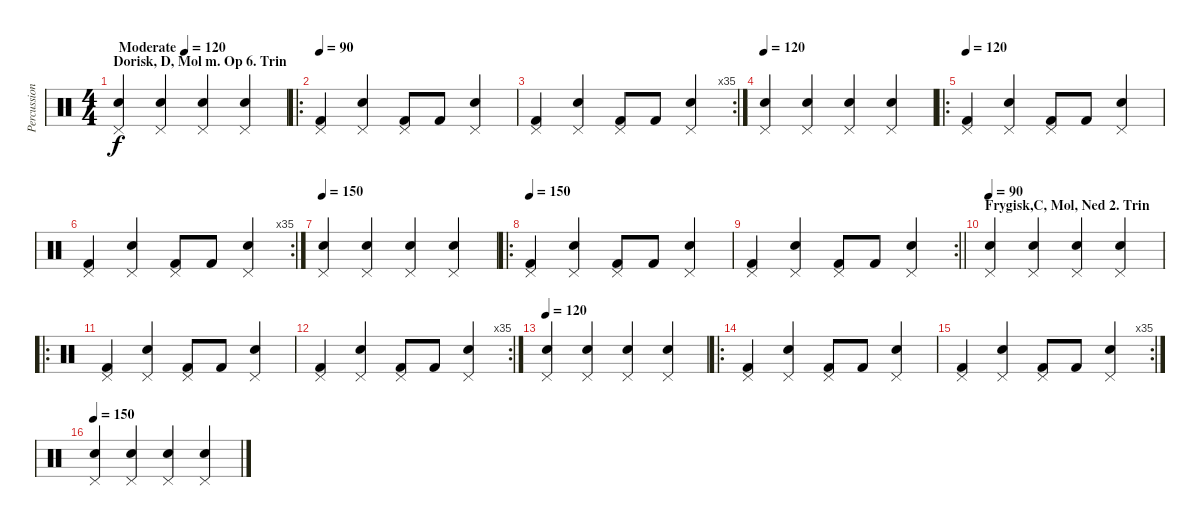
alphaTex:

\track ("Percussion" "Percussion") {instrument percussion}
\staff {score}
\articulation defaults
\ts (4 4)
\section ("" "Dorisk, D, Mol m. Op 6. Trin")
\tempo (120 "Moderate")
\tempo 90
\tempo (120 "Moderate")
\clef neutral
\ks c
("Pedal Hi-Hat (hit)" "Electric Snare (hit)").4{dy f} ("Pedal Hi-Hat (hit)" "Electric Snare (hit)").4 ("Pedal Hi-Hat (hit)" "Electric Snare (hit)").4 ("Pedal Hi-Hat (hit)" "Electric Snare (hit)").4 |
\ro
\tempo 90
("Pedal Hi-Hat (hit)" "Kick (hit) 2").4 ("Pedal Hi-Hat (hit)" "Electric Snare (hit)").4 ("Pedal Hi-Hat (hit)" "Kick (hit) 2").8 "Kick (hit) 2".8 ("Pedal Hi-Hat (hit)" "Electric Snare (hit)").4 |
\rc 35
("Pedal Hi-Hat (hit)" "Kick (hit) 2").4 ("Pedal Hi-Hat (hit)" "Electric Snare (hit)").4 ("Pedal Hi-Hat (hit)" "Kick (hit) 2").8 "Kick (hit) 2".8 ("Pedal Hi-Hat (hit)" "Electric Snare (hit)").4 |
\tempo 120
("Pedal Hi-Hat (hit)" "Electric Snare (hit)").4 ("Pedal Hi-Hat (hit)" "Electric Snare (hit)").4 ("Pedal Hi-Hat (hit)" "Electric Snare (hit)").4 ("Pedal Hi-Hat (hit)" "Electric Snare (hit)").4 |
\ro
\tempo 120
("Pedal Hi-Hat (hit)" "Kick (hit) 2").4 ("Pedal Hi-Hat (hit)" "Electric Snare (hit)").4 ("Pedal Hi-Hat (hit)" "Kick (hit) 2").8 "Kick (hit) 2".8 ("Pedal Hi-Hat (hit)" "Electric Snare (hit)").4 |
\rc 35
("Pedal Hi-Hat (hit)" "Kick (hit) 2").4 ("Pedal Hi-Hat (hit)" "Electric Snare (hit)").4 ("Pedal Hi-Hat (hit)" "Kick (hit) 2").8 "Kick (hit) 2".8 ("Pedal Hi-Hat (hit)" "Electric Snare (hit)").4 |
\tempo 150
("Pedal Hi-Hat (hit)" "Electric Snare (hit)").4 ("Pedal Hi-Hat (hit)" "Electric Snare (hit)").4 ("Pedal Hi-Hat (hit)" "Electric Snare (hit)").4 ("Pedal Hi-Hat (hit)" "Electric Snare (hit)").4 |
\ro
\tempo 150
("Pedal Hi-Hat (hit)" "Kick (hit) 2").4 ("Pedal Hi-Hat (hit)" "Electric Snare (hit)").4 ("Pedal Hi-Hat (hit)" "Kick (hit) 2").8 "Kick (hit) 2".8 ("Pedal Hi-Hat (hit)" "Electric Snare (hit)").4 |
\rc 2
\barLineRight lightlight
("Pedal Hi-Hat (hit)" "Kick (hit) 2").4 ("Pedal Hi-Hat (hit)" "Electric Snare (hit)").4 ("Pedal Hi-Hat (hit)" "Kick (hit) 2").8 "Kick (hit) 2".8 ("Pedal Hi-Hat (hit)" "Electric Snare (hit)").4 |
\section ("" "Frygisk,C, Mol, Ned 2. Trin")
\tempo 90
("Pedal Hi-Hat (hit)" "Electric Snare (hit)").4 ("Pedal Hi-Hat (hit)" "Electric Snare (hit)").4 ("Pedal Hi-Hat (hit)" "Electric Snare (hit)").4 ("Pedal Hi-Hat (hit)" "Electric Snare (hit)").4 |
\ro
("Pedal Hi-Hat (hit)" "Kick (hit) 2").4 ("Pedal Hi-Hat (hit)" "Electric Snare (hit)").4 ("Pedal Hi-Hat (hit)" "Kick (hit) 2").8 "Kick (hit) 2".8 ("Pedal Hi-Hat (hit)" "Electric Snare (hit)").4 |
\rc 35
("Pedal Hi-Hat (hit)" "Kick (hit) 2").4 ("Pedal Hi-Hat (hit)" "Electric Snare (hit)").4 ("Pedal Hi-Hat (hit)" "Kick (hit) 2").8 "Kick (hit) 2".8 ("Pedal Hi-Hat (hit)" "Electric Snare (hit)").4 |
\tempo 120
("Pedal Hi-Hat (hit)" "Electric Snare (hit)").4 ("Pedal Hi-Hat (hit)" "Electric Snare (hit)").4 ("Pedal Hi-Hat (hit)" "Electric Snare (hit)").4 ("Pedal Hi-Hat (hit)" "Electric Snare (hit)").4 |
\ro
("Pedal Hi-Hat (hit)" "Kick (hit) 2").4 ("Pedal Hi-Hat (hit)" "Electric Snare (hit)").4 ("Pedal Hi-Hat (hit)" "Kick (hit) 2").8 "Kick (hit) 2".8 ("Pedal Hi-Hat (hit)" "Electric Snare (hit)").4 |
\rc 35
("Pedal Hi-Hat (hit)" "Kick (hit) 2").4 ("Pedal Hi-Hat (hit)" "Electric Snare (hit)").4 ("Pedal Hi-Hat (hit)" "Kick (hit) 2").8 "Kick (hit) 2".8 ("Pedal Hi-Hat (hit)" "Electric Snare (hit)").4 |
\tempo 150
("Pedal Hi-Hat (hit)" "Electric Snare (hit)").4 ("Pedal Hi-Hat (hit)" "Electric Snare (hit)").4 ("Pedal Hi-Hat (hit)" "Electric Snare (hit)").4 ("Pedal Hi-Hat (hit)" "Electric Snare (hit)").4
